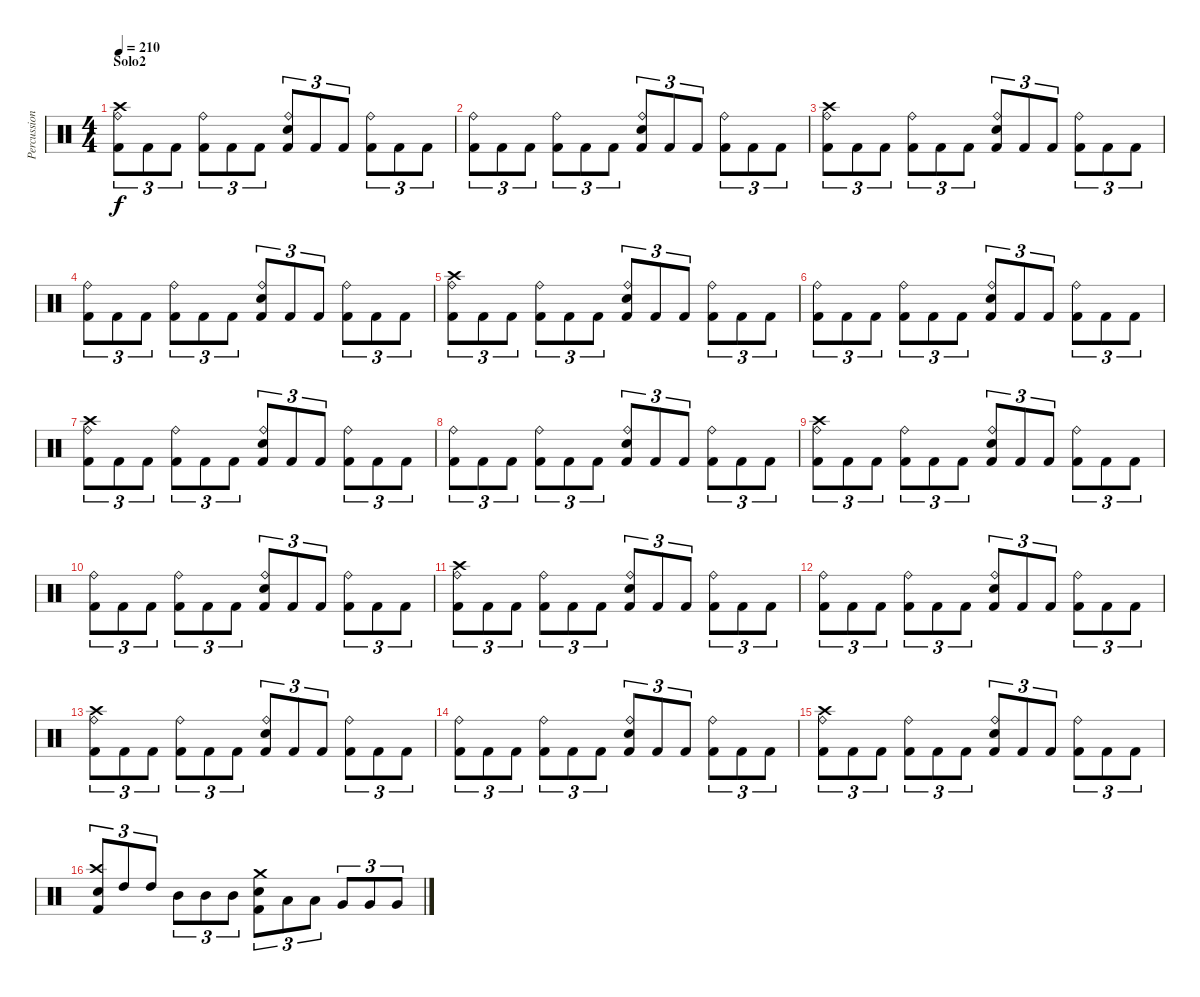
\track ("Percussion" "Percussion") {instrument percussion}
\staff {score}
\articulation defaults
\ts (4 4)
\section ("" "Solo2")
\tempo 210
\clef neutral
\ks c
("Kick (hit) 2" "Ride (bell)" "Crash high (hit)").8{tu (3 2) dy f} "Kick (hit) 2".8{tu (3 2)} "Kick (hit) 2".8{tu (3 2)} ("Kick (hit) 2" "Ride (bell)").8{tu (3 2)} "Kick (hit) 2".8{tu (3 2)} "Kick (hit) 2".8{tu (3 2)} ("Kick (hit) 2" "Electric Snare (hit)" "Ride (bell)").8{tu (3 2)} "Kick (hit) 2".8{tu (3 2)} "Kick (hit) 2".8{tu (3 2)} ("Kick (hit) 2" "Ride (bell)").8{tu (3 2)} "Kick (hit) 2".8{tu (3 2)} "Kick (hit) 2".8{tu (3 2)} |
("Kick (hit) 2" "Ride (bell)").8{tu (3 2)} "Kick (hit) 2".8{tu (3 2)} "Kick (hit) 2".8{tu (3 2)} ("Kick (hit) 2" "Ride (bell)").8{tu (3 2)} "Kick (hit) 2".8{tu (3 2)} "Kick (hit) 2".8{tu (3 2)} ("Kick (hit) 2" "Electric Snare (hit)" "Ride (bell)").8{tu (3 2)} "Kick (hit) 2".8{tu (3 2)} "Kick (hit) 2".8{tu (3 2)} ("Kick (hit) 2" "Ride (bell)").8{tu (3 2)} "Kick (hit) 2".8{tu (3 2)} "Kick (hit) 2".8{tu (3 2)} |
("Kick (hit) 2" "Ride (bell)" "Crash high (hit)").8{tu (3 2)} "Kick (hit) 2".8{tu (3 2)} "Kick (hit) 2".8{tu (3 2)} ("Kick (hit) 2" "Ride (bell)").8{tu (3 2)} "Kick (hit) 2".8{tu (3 2)} "Kick (hit) 2".8{tu (3 2)} ("Kick (hit) 2" "Electric Snare (hit)" "Ride (bell)").8{tu (3 2)} "Kick (hit) 2".8{tu (3 2)} "Kick (hit) 2".8{tu (3 2)} ("Kick (hit) 2" "Ride (bell)").8{tu (3 2)} "Kick (hit) 2".8{tu (3 2)} "Kick (hit) 2".8{tu (3 2)} |
("Kick (hit) 2" "Ride (bell)").8{tu (3 2)} "Kick (hit) 2".8{tu (3 2)} "Kick (hit) 2".8{tu (3 2)} ("Kick (hit) 2" "Ride (bell)").8{tu (3 2)} "Kick (hit) 2".8{tu (3 2)} "Kick (hit) 2".8{tu (3 2)} ("Kick (hit) 2" "Electric Snare (hit)" "Ride (bell)").8{tu (3 2)} "Kick (hit) 2".8{tu (3 2)} "Kick (hit) 2".8{tu (3 2)} ("Kick (hit) 2" "Ride (bell)").8{tu (3 2)} "Kick (hit) 2".8{tu (3 2)} "Kick (hit) 2".8{tu (3 2)} |
("Kick (hit) 2" "Ride (bell)" "Crash high (hit)").8{tu (3 2)} "Kick (hit) 2".8{tu (3 2)} "Kick (hit) 2".8{tu (3 2)} ("Kick (hit) 2" "Ride (bell)").8{tu (3 2)} "Kick (hit) 2".8{tu (3 2)} "Kick (hit) 2".8{tu (3 2)} ("Kick (hit) 2" "Electric Snare (hit)" "Ride (bell)").8{tu (3 2)} "Kick (hit) 2".8{tu (3 2)} "Kick (hit) 2".8{tu (3 2)} ("Kick (hit) 2" "Ride (bell)").8{tu (3 2)} "Kick (hit) 2".8{tu (3 2)} "Kick (hit) 2".8{tu (3 2)} |
("Kick (hit) 2" "Ride (bell)").8{tu (3 2)} "Kick (hit) 2".8{tu (3 2)} "Kick (hit) 2".8{tu (3 2)} ("Kick (hit) 2" "Ride (bell)").8{tu (3 2)} "Kick (hit) 2".8{tu (3 2)} "Kick (hit) 2".8{tu (3 2)} ("Kick (hit) 2" "Electric Snare (hit)" "Ride (bell)").8{tu (3 2)} "Kick (hit) 2".8{tu (3 2)} "Kick (hit) 2".8{tu (3 2)} ("Kick (hit) 2" "Ride (bell)").8{tu (3 2)} "Kick (hit) 2".8{tu (3 2)} "Kick (hit) 2".8{tu (3 2)} |
("Kick (hit) 2" "Ride (bell)" "Crash high (hit)").8{tu (3 2)} "Kick (hit) 2".8{tu (3 2)} "Kick (hit) 2".8{tu (3 2)} ("Kick (hit) 2" "Ride (bell)").8{tu (3 2)} "Kick (hit) 2".8{tu (3 2)} "Kick (hit) 2".8{tu (3 2)} ("Kick (hit) 2" "Electric Snare (hit)" "Ride (bell)").8{tu (3 2)} "Kick (hit) 2".8{tu (3 2)} "Kick (hit) 2".8{tu (3 2)} ("Kick (hit) 2" "Ride (bell)").8{tu (3 2)} "Kick (hit) 2".8{tu (3 2)} "Kick (hit) 2".8{tu (3 2)} |
("Kick (hit) 2" "Ride (bell)").8{tu (3 2)} "Kick (hit) 2".8{tu (3 2)} "Kick (hit) 2".8{tu (3 2)} ("Kick (hit) 2" "Ride (bell)").8{tu (3 2)} "Kick (hit) 2".8{tu (3 2)} "Kick (hit) 2".8{tu (3 2)} ("Kick (hit) 2" "Electric Snare (hit)" "Ride (bell)").8{tu (3 2)} "Kick (hit) 2".8{tu (3 2)} "Kick (hit) 2".8{tu (3 2)} ("Kick (hit) 2" "Ride (bell)").8{tu (3 2)} "Kick (hit) 2".8{tu (3 2)} "Kick (hit) 2".8{tu (3 2)} |
("Kick (hit) 2" "Ride (bell)" "Crash high (hit)").8{tu (3 2)} "Kick (hit) 2".8{tu (3 2)} "Kick (hit) 2".8{tu (3 2)} ("Kick (hit) 2" "Ride (bell)").8{tu (3 2)} "Kick (hit) 2".8{tu (3 2)} "Kick (hit) 2".8{tu (3 2)} ("Kick (hit) 2" "Electric Snare (hit)" "Ride (bell)").8{tu (3 2)} "Kick (hit) 2".8{tu (3 2)} "Kick (hit) 2".8{tu (3 2)} ("Kick (hit) 2" "Ride (bell)").8{tu (3 2)} "Kick (hit) 2".8{tu (3 2)} "Kick (hit) 2".8{tu (3 2)} |
("Kick (hit) 2" "Ride (bell)").8{tu (3 2)} "Kick (hit) 2".8{tu (3 2)} "Kick (hit) 2".8{tu (3 2)} ("Kick (hit) 2" "Ride (bell)").8{tu (3 2)} "Kick (hit) 2".8{tu (3 2)} "Kick (hit) 2".8{tu (3 2)} ("Kick (hit) 2" "Electric Snare (hit)" "Ride (bell)").8{tu (3 2)} "Kick (hit) 2".8{tu (3 2)} "Kick (hit) 2".8{tu (3 2)} ("Kick (hit) 2" "Ride (bell)").8{tu (3 2)} "Kick (hit) 2".8{tu (3 2)} "Kick (hit) 2".8{tu (3 2)} |
("Kick (hit) 2" "Ride (bell)" "Crash high (hit)").8{tu (3 2)} "Kick (hit) 2".8{tu (3 2)} "Kick (hit) 2".8{tu (3 2)} ("Kick (hit) 2" "Ride (bell)").8{tu (3 2)} "Kick (hit) 2".8{tu (3 2)} "Kick (hit) 2".8{tu (3 2)} ("Kick (hit) 2" "Electric Snare (hit)" "Ride (bell)").8{tu (3 2)} "Kick (hit) 2".8{tu (3 2)} "Kick (hit) 2".8{tu (3 2)} ("Kick (hit) 2" "Ride (bell)").8{tu (3 2)} "Kick (hit) 2".8{tu (3 2)} "Kick (hit) 2".8{tu (3 2)} |
("Kick (hit) 2" "Ride (bell)").8{tu (3 2)} "Kick (hit) 2".8{tu (3 2)} "Kick (hit) 2".8{tu (3 2)} ("Kick (hit) 2" "Ride (bell)").8{tu (3 2)} "Kick (hit) 2".8{tu (3 2)} "Kick (hit) 2".8{tu (3 2)} ("Kick (hit) 2" "Electric Snare (hit)" "Ride (bell)").8{tu (3 2)} "Kick (hit) 2".8{tu (3 2)} "Kick (hit) 2".8{tu (3 2)} ("Kick (hit) 2" "Ride (bell)").8{tu (3 2)} "Kick (hit) 2".8{tu (3 2)} "Kick (hit) 2".8{tu (3 2)} |
("Kick (hit) 2" "Ride (bell)" "Crash high (hit)").8{tu (3 2)} "Kick (hit) 2".8{tu (3 2)} "Kick (hit) 2".8{tu (3 2)} ("Kick (hit) 2" "Ride (bell)").8{tu (3 2)} "Kick (hit) 2".8{tu (3 2)} "Kick (hit) 2".8{tu (3 2)} ("Kick (hit) 2" "Electric Snare (hit)" "Ride (bell)").8{tu (3 2)} "Kick (hit) 2".8{tu (3 2)} "Kick (hit) 2".8{tu (3 2)} ("Kick (hit) 2" "Ride (bell)").8{tu (3 2)} "Kick (hit) 2".8{tu (3 2)} "Kick (hit) 2".8{tu (3 2)} |
("Kick (hit) 2" "Ride (bell)").8{tu (3 2)} "Kick (hit) 2".8{tu (3 2)} "Kick (hit) 2".8{tu (3 2)} ("Kick (hit) 2" "Ride (bell)").8{tu (3 2)} "Kick (hit) 2".8{tu (3 2)} "Kick (hit) 2".8{tu (3 2)} ("Kick (hit) 2" "Electric Snare (hit)" "Ride (bell)").8{tu (3 2)} "Kick (hit) 2".8{tu (3 2)} "Kick (hit) 2".8{tu (3 2)} ("Kick (hit) 2" "Ride (bell)").8{tu (3 2)} "Kick (hit) 2".8{tu (3 2)} "Kick (hit) 2".8{tu (3 2)} |
("Kick (hit) 2" "Ride (bell)" "Crash high (hit)").8{tu (3 2)} "Kick (hit) 2".8{tu (3 2)} "Kick (hit) 2".8{tu (3 2)} ("Kick (hit) 2" "Ride (bell)").8{tu (3 2)} "Kick (hit) 2".8{tu (3 2)} "Kick (hit) 2".8{tu (3 2)} ("Kick (hit) 2" "Electric Snare (hit)" "Ride (bell)").8{tu (3 2)} "Kick (hit) 2".8{tu (3 2)} "Kick (hit) 2".8{tu (3 2)} ("Kick (hit) 2" "Ride (bell)").8{tu (3 2)} "Kick (hit) 2".8{tu (3 2)} "Kick (hit) 2".8{tu (3 2)} |
("Electric Snare (hit)" "Crash high (hit)" "Kick (hit) 2").8{tu (3 2)} "High Tom (hit)".8{tu (3 2)} "High Tom (hit)".8{tu (3 2)} "Mid Tom (hit)".8{tu (3 2)} "Mid Tom (hit)".8{tu (3 2)} "Mid Tom (hit)".8{tu (3 2)} ("Electric Snare (hit)" "Crash medium (hit)" "Kick (hit) 2").8{tu (3 2)} "Low Tom (hit)".8{tu (3 2)} "Low Tom (hit)".8{tu (3 2)} "Very Low Tom (hit)".8{tu (3 2)} "Very Low Tom (hit)".8{tu (3 2)} "Very Low Tom (hit)".8{tu (3 2)}
